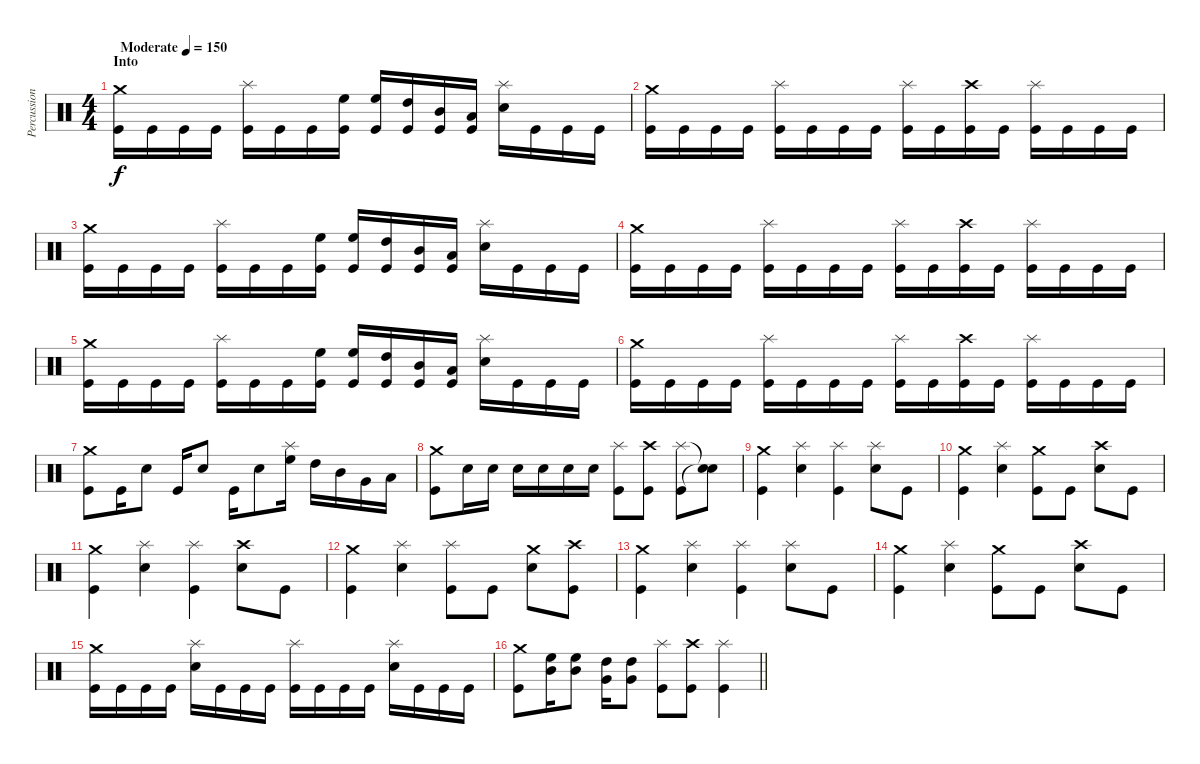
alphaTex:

\track ("Percussion" "Percussion") {instrument percussion}
\staff {score}
\articulation defaults
\ts (4 4)
\section ("" "Into")
\tempo (150 "Moderate")
\clef neutral
\ks c
("Crash medium (hit)" "Kick (hit)").16{dy f} "Kick (hit)".16 "Kick (hit)".16 "Kick (hit)".16 ("Splash (hit)" "Kick (hit)").16 "Kick (hit)".16 "Kick (hit)".16 ("High Floor Tom (hit)" "Kick (hit)").16 ("High Floor Tom (hit)" "Kick (hit)").16 ("High Tom (hit)" "Kick (hit)").16 ("Mid Tom (hit)" "Kick (hit)").16 ("Low Tom (hit)" "Kick (hit)").16 ("Splash (hit)" "Snare (hit) 2").16 "Kick (hit)".16 "Kick (hit)".16 "Kick (hit)".16 |
("Crash medium (hit)" "Kick (hit)").16 "Kick (hit)".16 "Kick (hit)".16 "Kick (hit)".16 ("Splash (hit)" "Kick (hit)").16 "Kick (hit)".16 "Kick (hit)".16 "Kick (hit)".16 ("Splash (hit)" "Kick (hit)").16 "Kick (hit)".16 ("Crash high (hit)" "Kick (hit)").16 "Kick (hit)".16 ("Splash (hit)" "Kick (hit)").16 "Kick (hit)".16 "Kick (hit)".16 "Kick (hit)".16 |
("Crash medium (hit)" "Kick (hit)").16 "Kick (hit)".16 "Kick (hit)".16 "Kick (hit)".16 ("Splash (hit)" "Kick (hit)").16 "Kick (hit)".16 "Kick (hit)".16 ("High Floor Tom (hit)" "Kick (hit)").16 ("High Floor Tom (hit)" "Kick (hit)").16 ("High Tom (hit)" "Kick (hit)").16 ("Mid Tom (hit)" "Kick (hit)").16 ("Low Tom (hit)" "Kick (hit)").16 ("Splash (hit)" "Snare (hit) 2").16 "Kick (hit)".16 "Kick (hit)".16 "Kick (hit)".16 |
("Crash medium (hit)" "Kick (hit)").16 "Kick (hit)".16 "Kick (hit)".16 "Kick (hit)".16 ("Splash (hit)" "Kick (hit)").16 "Kick (hit)".16 "Kick (hit)".16 "Kick (hit)".16 ("Splash (hit)" "Kick (hit)").16 "Kick (hit)".16 ("Crash high (hit)" "Kick (hit)").16 "Kick (hit)".16 ("Splash (hit)" "Kick (hit)").16 "Kick (hit)".16 "Kick (hit)".16 "Kick (hit)".16 |
("Crash medium (hit)" "Kick (hit)").16 "Kick (hit)".16 "Kick (hit)".16 "Kick (hit)".16 ("Splash (hit)" "Kick (hit)").16 "Kick (hit)".16 "Kick (hit)".16 ("High Floor Tom (hit)" "Kick (hit)").16 ("High Floor Tom (hit)" "Kick (hit)").16 ("High Tom (hit)" "Kick (hit)").16 ("Mid Tom (hit)" "Kick (hit)").16 ("Low Tom (hit)" "Kick (hit)").16 ("Splash (hit)" "Snare (hit) 2").16 "Kick (hit)".16 "Kick (hit)".16 "Kick (hit)".16 |
("Crash medium (hit)" "Kick (hit)").16 "Kick (hit)".16 "Kick (hit)".16 "Kick (hit)".16 ("Splash (hit)" "Kick (hit)").16 "Kick (hit)".16 "Kick (hit)".16 "Kick (hit)".16 ("Splash (hit)" "Kick (hit)").16 "Kick (hit)".16 ("Crash high (hit)" "Kick (hit)").16 "Kick (hit)".16 ("Splash (hit)" "Kick (hit)").16 "Kick (hit)".16 "Kick (hit)".16 "Kick (hit)".16 |
("Crash medium (hit)" "Kick (hit)").8 "Kick (hit)".16 "Snare (hit) 2".8 "Kick (hit)".16 "Snare (hit) 2".8 "Kick (hit)".16 "Snare (hit) 2".8 ("High Floor Tom (hit)" "Splash (hit)").16 "High Tom (hit)".16 "Mid Tom (hit)".16 "Very Low Tom (hit)".16 "Low Floor Tom (hit)".16 |
("Crash medium (hit)" "Kick (hit)").8 "Snare (hit) 2".16 "Snare (hit) 2".16 "Snare (hit) 2".16 "Snare (hit) 2".16 "Snare (hit) 2".16 "Snare (hit) 2".16 ("Splash (hit)" "Kick (hit)").8 ("Crash high (hit)" "Kick (hit)").8 ("Splash (hit)" "Kick (hit)").8 ("Snare (hit)"{t} "Snare (hit)"{t}).8 |
("Crash medium (hit)" "Kick (hit)").4 ("Splash (hit)" "Snare (hit) 2").4 ("Splash (hit)" "Kick (hit)").4 ("Splash (hit)" "Snare (hit) 2").8 "Kick (hit)".8 |
("Crash medium (hit)" "Kick (hit)").4 ("Splash (hit)" "Snare (hit) 2").4 ("Crash medium (hit)" "Kick (hit)").8 "Kick (hit)".8 ("Crash high (hit)" "Snare (hit) 2").8 "Kick (hit)".8 |
("Crash medium (hit)" "Kick (hit)").4 ("Splash (hit)" "Snare (hit) 2").4 ("Splash (hit)" "Kick (hit)").4 ("Crash high (hit)" "Snare (hit) 2").8 "Kick (hit)".8 |
("Crash medium (hit)" "Kick (hit)").4 ("Splash (hit)" "Snare (hit) 2").4 ("Splash (hit)" "Kick (hit)").8 "Kick (hit)".8 ("Crash medium (hit)" "Snare (hit) 2").8 ("Crash high (hit)" "Kick (hit)").8 |
("Crash medium (hit)" "Kick (hit)").4 ("Splash (hit)" "Snare (hit) 2").4 ("Splash (hit)" "Kick (hit)").4 ("Splash (hit)" "Snare (hit) 2").8 "Kick (hit)".8 |
("Crash medium (hit)" "Kick (hit)").4 ("Splash (hit)" "Snare (hit) 2").4 ("Crash medium (hit)" "Kick (hit)").8 "Kick (hit)".8 ("Crash high (hit)" "Snare (hit) 2").8 "Kick (hit)".8 |
("Crash medium (hit)" "Kick (hit)").16 "Kick (hit)".16 "Kick (hit)".16 "Kick (hit)".16 ("Splash (hit)" "Snare (hit) 2").16 "Kick (hit)".16 "Kick (hit)".16 "Kick (hit)".16 ("Splash (hit)" "Kick (hit)").16 "Kick (hit)".16 "Kick (hit)".16 "Kick (hit)".16 ("Splash (hit)" "Snare (hit) 2").16 "Kick (hit)".16 "Kick (hit)".16 "Kick (hit)".16 |
\barLineRight lightlight
("Crash medium (hit)" "Kick (hit)").8 ("High Floor Tom (hit)" "Mid Tom (hit)").16 ("High Floor Tom (hit)" "Mid Tom (hit)").8 ("High Tom (hit)" "Very Low Tom (hit)").16 ("High Tom (hit)" "Very Low Tom (hit)").8 ("Splash (hit)" "Kick (hit)").8 ("Crash high (hit)" "Kick (hit)").8 ("Splash (hit)" "Kick (hit)").4
